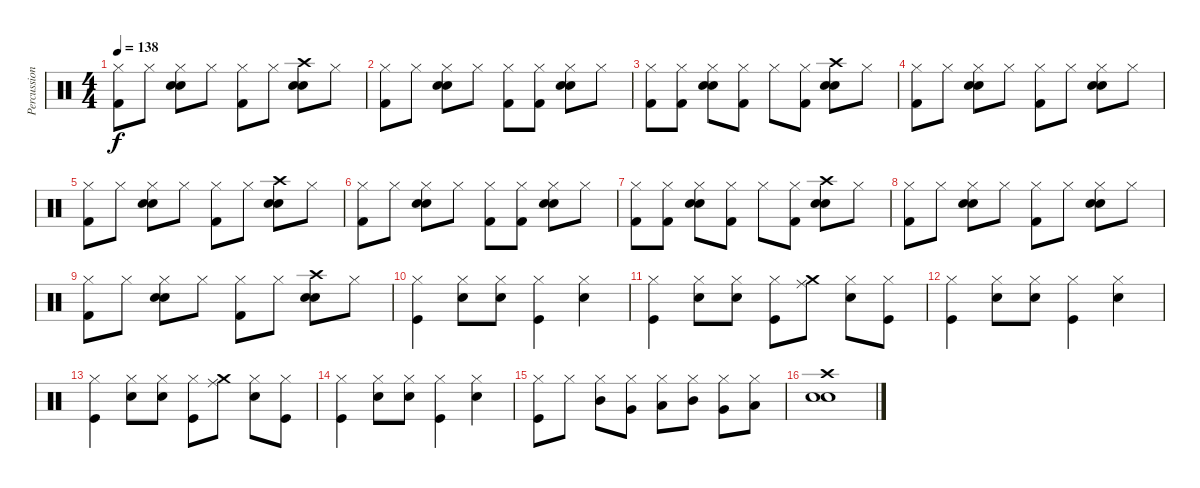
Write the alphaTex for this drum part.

\track ("Percussions" "Percussion") {instrument percussion}
\staff {score}
\articulation defaults
\ts (4 4)
\tempo 138
\clef neutral
\ks c
("Hi-Hat (closed)" "Kick (hit) 2").8{dy f} "Hi-Hat (closed)".8 ("Hi-Hat (closed)" "Snare (hit) 2" "Electric Snare (hit)").8 "Hi-Hat (closed)".8 ("Hi-Hat (closed)" "Kick (hit) 2").8 "Hi-Hat (closed)".8 ("Crash high (hit)" "Snare (hit) 2" "Electric Snare (hit)").8 "Hi-Hat (closed)".8 |
("Hi-Hat (closed)" "Kick (hit) 2").8 "Hi-Hat (closed)".8 ("Hi-Hat (closed)" "Snare (hit) 2" "Electric Snare (hit)").8 "Hi-Hat (closed)".8 ("Hi-Hat (closed)" "Kick (hit) 2").8 ("Hi-Hat (closed)" "Kick (hit) 2").8 ("Hi-Hat (closed)" "Snare (hit) 2" "Electric Snare (hit)").8 "Hi-Hat (closed)".8 |
("Hi-Hat (closed)" "Kick (hit) 2").8 ("Hi-Hat (closed)" "Kick (hit) 2").8 ("Hi-Hat (closed)" "Snare (hit) 2" "Electric Snare (hit)").8 ("Hi-Hat (closed)" "Kick (hit) 2").8 "Hi-Hat (closed)".8 ("Hi-Hat (closed)" "Kick (hit) 2").8 ("Crash high (hit)" "Snare (hit) 2" "Electric Snare (hit)").8 "Hi-Hat (closed)".8 |
("Hi-Hat (closed)" "Kick (hit) 2").8 "Hi-Hat (closed)".8 ("Hi-Hat (closed)" "Snare (hit) 2" "Electric Snare (hit)").8 "Hi-Hat (closed)".8 ("Hi-Hat (closed)" "Kick (hit) 2").8 "Hi-Hat (closed)".8 ("Hi-Hat (closed)" "Snare (hit) 2" "Electric Snare (hit)").8 "Hi-Hat (closed)".8 |
("Hi-Hat (closed)" "Kick (hit) 2").8 "Hi-Hat (closed)".8 ("Hi-Hat (closed)" "Snare (hit) 2" "Electric Snare (hit)").8 "Hi-Hat (closed)".8 ("Hi-Hat (closed)" "Kick (hit) 2").8 "Hi-Hat (closed)".8 ("Crash high (hit)" "Snare (hit) 2" "Electric Snare (hit)").8 "Hi-Hat (closed)".8 |
("Hi-Hat (closed)" "Kick (hit) 2").8 "Hi-Hat (closed)".8 ("Hi-Hat (closed)" "Snare (hit) 2" "Electric Snare (hit)").8 "Hi-Hat (closed)".8 ("Hi-Hat (closed)" "Kick (hit) 2").8 ("Hi-Hat (closed)" "Kick (hit) 2").8 ("Hi-Hat (closed)" "Snare (hit) 2" "Electric Snare (hit)").8 "Hi-Hat (closed)".8 |
("Hi-Hat (closed)" "Kick (hit) 2").8 ("Hi-Hat (closed)" "Kick (hit) 2").8 ("Hi-Hat (closed)" "Snare (hit) 2" "Electric Snare (hit)").8 ("Hi-Hat (closed)" "Kick (hit) 2").8 "Hi-Hat (closed)".8 ("Hi-Hat (closed)" "Kick (hit) 2").8 ("Crash high (hit)" "Snare (hit) 2" "Electric Snare (hit)").8 "Hi-Hat (closed)".8 |
("Hi-Hat (closed)" "Kick (hit) 2").8 "Hi-Hat (closed)".8 ("Hi-Hat (closed)" "Snare (hit) 2" "Electric Snare (hit)").8 "Hi-Hat (closed)".8 ("Hi-Hat (closed)" "Kick (hit) 2").8 "Hi-Hat (closed)".8 ("Hi-Hat (closed)" "Snare (hit) 2" "Electric Snare (hit)").8 "Hi-Hat (closed)".8 |
("Hi-Hat (closed)" "Kick (hit) 2").8 "Hi-Hat (closed)".8 ("Hi-Hat (closed)" "Snare (hit) 2" "Electric Snare (hit)").8 "Hi-Hat (closed)".8 ("Hi-Hat (closed)" "Kick (hit) 2").8 "Hi-Hat (closed)".8 ("Crash high (hit)" "Snare (hit) 2" "Electric Snare (hit)").8 "Hi-Hat (closed)".8 |
("Hi-Hat (closed)" "Kick (hit)").4 ("Hi-Hat (closed)" "Electric Snare (hit)").8 ("Hi-Hat (closed)" "Electric Snare (hit)").8 ("Hi-Hat (closed)" "Kick (hit)").4 ("Hi-Hat (closed)" "Electric Snare (hit)").4 |
("Hi-Hat (closed)" "Kick (hit)").4 ("Hi-Hat (closed)" "Electric Snare (hit)").8 ("Hi-Hat (closed)" "Electric Snare (hit)").8 ("Hi-Hat (closed)" "Kick (hit)").8 ("Crash medium (hit)" "Ride (middle)").8 ("Hi-Hat (closed)" "Electric Snare (hit)").8 ("Hi-Hat (closed)" "Kick (hit)").8 |
("Hi-Hat (closed)" "Kick (hit)").4 ("Hi-Hat (closed)" "Electric Snare (hit)").8 ("Hi-Hat (closed)" "Electric Snare (hit)").8 ("Hi-Hat (closed)" "Kick (hit)").4 ("Hi-Hat (closed)" "Electric Snare (hit)").4 |
("Hi-Hat (closed)" "Kick (hit)").4 ("Hi-Hat (closed)" "Electric Snare (hit)").8 ("Hi-Hat (closed)" "Electric Snare (hit)").8 ("Hi-Hat (closed)" "Kick (hit)").8 ("Crash medium (hit)" "Ride (middle)").8 ("Hi-Hat (closed)" "Electric Snare (hit)").8 ("Hi-Hat (closed)" "Kick (hit)").8 |
("Hi-Hat (closed)" "Kick (hit)").4 ("Hi-Hat (closed)" "Electric Snare (hit)").8 ("Hi-Hat (closed)" "Electric Snare (hit)").8 ("Hi-Hat (closed)" "Kick (hit)").4 ("Hi-Hat (closed)" "Electric Snare (hit)").4 |
("Hi-Hat (closed)" "Kick (hit)").8 "Hi-Hat (closed)".8 ("Hi-Hat (closed)" "Mid Tom (hit)").8 ("Hi-Hat (closed)" "Very Low Tom (hit)").8 ("Hi-Hat (closed)" "Low Floor Tom (hit)").8 ("Hi-Hat (closed)" "Mid Tom (hit)").8 ("Hi-Hat (closed)" "Very Low Tom (hit)").8 ("Hi-Hat (closed)" "Low Floor Tom (hit)").8 |
("Crash high (hit)" "Snare (hit) 2" "Electric Snare (hit)").1
